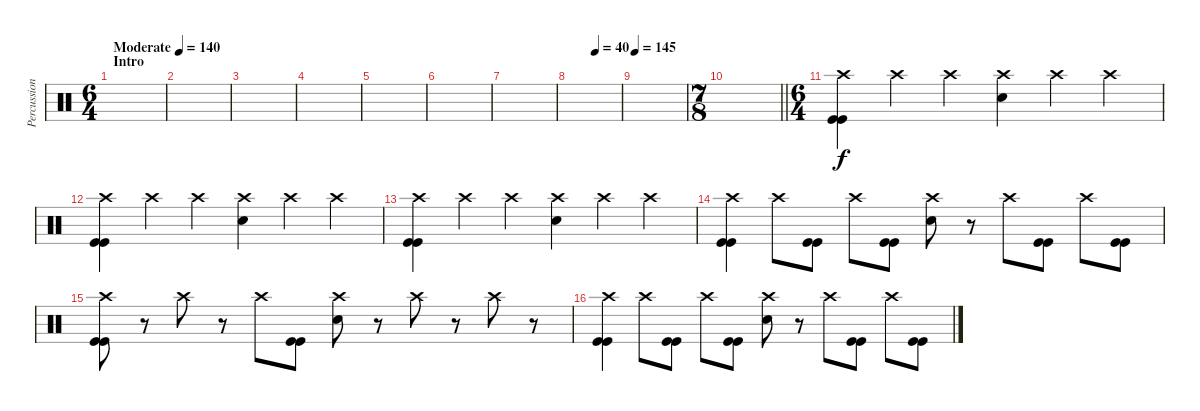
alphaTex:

\track ("Percussion" "Percussion") {instrument percussion}
\staff {score}
\articulation defaults
\ts (6 4)
\section ("" "Intro")
\tempo (140 "Moderate")
\clef neutral
\ks c
|
|
|
|
|
|
|
\tempo (40 0.5)
|
\tempo 145
|
\ts (7 8)
\barLineRight lightlight
|
\ts (6 4)
("Crash high (hit)" "Kick (hit)" "Kick (hit)").4 "Crash high (hit)".4 "Crash high (hit)".4 ("Crash high (hit)" "Snare (hit) 2").4 "Crash high (hit)".4 "Crash high (hit)".4 |
("Crash high (hit)" "Kick (hit)" "Kick (hit)").4 "Crash high (hit)".4 "Crash high (hit)".4 ("Crash high (hit)" "Snare (hit) 2").4 "Crash high (hit)".4 "Crash high (hit)".4 |
("Crash high (hit)" "Kick (hit)" "Kick (hit)").4 "Crash high (hit)".4 "Crash high (hit)".4 ("Crash high (hit)" "Snare (hit) 2").4 "Crash high (hit)".4 "Crash high (hit)".4 |
("Crash high (hit)" "Kick (hit)" "Kick (hit)").4 "Crash high (hit)".8 ("Kick (hit)" "Kick (hit)").8 "Crash high (hit)".8 ("Kick (hit)" "Kick (hit)").8 ("Crash high (hit)" "Snare (hit) 2").8 r.8 "Crash high (hit)".8 ("Kick (hit)" "Kick (hit)").8 "Crash high (hit)".8 ("Kick (hit)" "Kick (hit)").8 |
("Crash high (hit)" "Kick (hit)" "Kick (hit)").8 r.8 "Crash high (hit)".8 r.8 "Crash high (hit)".8 ("Kick (hit)" "Kick (hit)").8 ("Crash high (hit)" "Snare (hit) 2").8 r.8 "Crash high (hit)".8 r.8 "Crash high (hit)".8 r.8 |
("Crash high (hit)" "Kick (hit)" "Kick (hit)").4 "Crash high (hit)".8 ("Kick (hit)" "Kick (hit)").8 "Crash high (hit)".8 ("Kick (hit)" "Kick (hit)").8 ("Crash high (hit)" "Snare (hit) 2").8 r.8 "Crash high (hit)".8 ("Kick (hit)" "Kick (hit)").8 "Crash high (hit)".8 ("Kick (hit)" "Kick (hit)").8
